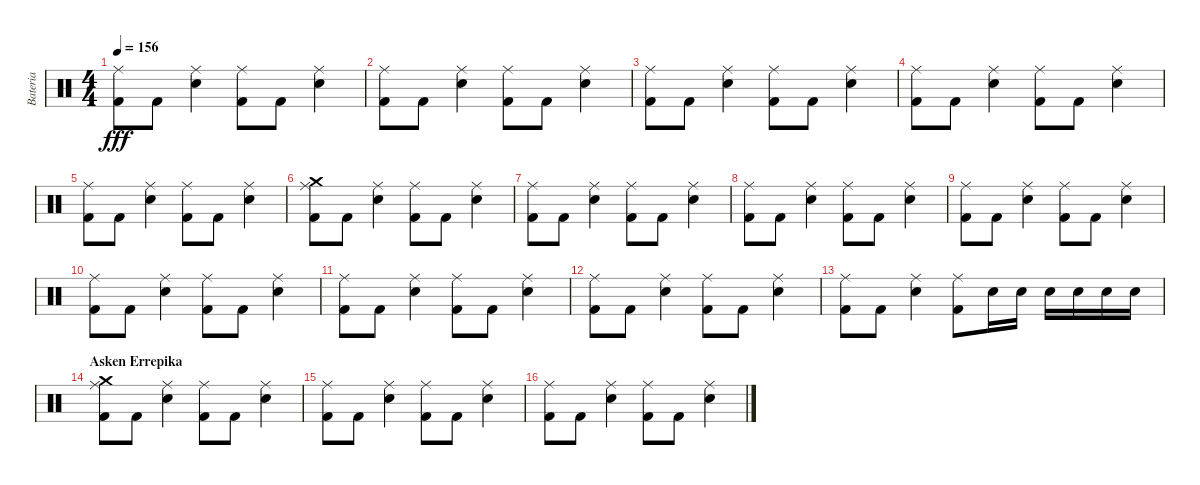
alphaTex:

\track ("Bateria" "Bateria") {instrument percussion}
\staff {score}
\articulation defaults
\ts (4 4)
\tempo 156
\clef neutral
\ks c
("Ride (middle)" "Kick (hit) 2").8{dy fff} "Kick (hit) 2".8 ("Ride (middle)" "Electric Snare (hit)").4 ("Ride (middle)" "Kick (hit) 2").8 "Kick (hit) 2".8 ("Ride (middle)" "Electric Snare (hit)").4 |
("Ride (middle)" "Kick (hit) 2").8 "Kick (hit) 2".8 ("Ride (middle)" "Electric Snare (hit)").4 ("Ride (middle)" "Kick (hit) 2").8 "Kick (hit) 2".8 ("Ride (middle)" "Electric Snare (hit)").4 |
("Ride (middle)" "Kick (hit) 2").8 "Kick (hit) 2".8 ("Ride (middle)" "Electric Snare (hit)").4 ("Ride (middle)" "Kick (hit) 2").8 "Kick (hit) 2".8 ("Ride (middle)" "Electric Snare (hit)").4 |
("Ride (middle)" "Kick (hit) 2").8 "Kick (hit) 2".8 ("Ride (middle)" "Electric Snare (hit)").4 ("Ride (middle)" "Kick (hit) 2").8 "Kick (hit) 2".8 ("Ride (middle)" "Electric Snare (hit)").4 |
("Ride (middle)" "Kick (hit) 2").8 "Kick (hit) 2".8 ("Ride (middle)" "Electric Snare (hit)").4 ("Ride (middle)" "Kick (hit) 2").8 "Kick (hit) 2".8 ("Ride (middle)" "Electric Snare (hit)").4 |
("Ride (middle)" "Kick (hit) 2" "Crash medium (hit)").8 "Kick (hit) 2".8 ("Ride (middle)" "Electric Snare (hit)").4 ("Ride (middle)" "Kick (hit) 2").8 "Kick (hit) 2".8 ("Ride (middle)" "Electric Snare (hit)").4 |
("Ride (middle)" "Kick (hit) 2").8 "Kick (hit) 2".8 ("Ride (middle)" "Electric Snare (hit)").4 ("Ride (middle)" "Kick (hit) 2").8 "Kick (hit) 2".8 ("Ride (middle)" "Electric Snare (hit)").4 |
("Ride (middle)" "Kick (hit) 2").8 "Kick (hit) 2".8 ("Ride (middle)" "Electric Snare (hit)").4 ("Ride (middle)" "Kick (hit) 2").8 "Kick (hit) 2".8 ("Ride (middle)" "Electric Snare (hit)").4 |
("Ride (middle)" "Kick (hit) 2").8 "Kick (hit) 2".8 ("Ride (middle)" "Electric Snare (hit)").4 ("Ride (middle)" "Kick (hit) 2").8 "Kick (hit) 2".8 ("Ride (middle)" "Electric Snare (hit)").4 |
("Ride (middle)" "Kick (hit) 2").8 "Kick (hit) 2".8 ("Ride (middle)" "Electric Snare (hit)").4 ("Ride (middle)" "Kick (hit) 2").8 "Kick (hit) 2".8 ("Ride (middle)" "Electric Snare (hit)").4 |
("Ride (middle)" "Kick (hit) 2").8 "Kick (hit) 2".8 ("Ride (middle)" "Electric Snare (hit)").4 ("Ride (middle)" "Kick (hit) 2").8 "Kick (hit) 2".8 ("Ride (middle)" "Electric Snare (hit)").4 |
("Ride (middle)" "Kick (hit) 2").8 "Kick (hit) 2".8 ("Ride (middle)" "Electric Snare (hit)").4 ("Ride (middle)" "Kick (hit) 2").8 "Kick (hit) 2".8 ("Ride (middle)" "Electric Snare (hit)").4 |
("Ride (middle)" "Kick (hit) 2").8 "Kick (hit) 2".8 ("Ride (middle)" "Electric Snare (hit)").4 ("Ride (middle)" "Kick (hit) 2").8 "Electric Snare (hit)".16 "Electric Snare (hit)".16 "Electric Snare (hit)".16 "Electric Snare (hit)".16 "Electric Snare (hit)".16 "Electric Snare (hit)".16 |
\section ("" "Asken Errepika")
("Ride (middle)" "Kick (hit) 2" "Crash medium (hit)").8 "Kick (hit) 2".8 ("Ride (middle)" "Electric Snare (hit)").4 ("Ride (middle)" "Kick (hit) 2").8 "Kick (hit) 2".8 ("Ride (middle)" "Electric Snare (hit)").4 |
("Ride (middle)" "Kick (hit) 2").8 "Kick (hit) 2".8 ("Ride (middle)" "Electric Snare (hit)").4 ("Ride (middle)" "Kick (hit) 2").8 "Kick (hit) 2".8 ("Ride (middle)" "Electric Snare (hit)").4 |
("Ride (middle)" "Kick (hit) 2").8 "Kick (hit) 2".8 ("Ride (middle)" "Electric Snare (hit)").4 ("Ride (middle)" "Kick (hit) 2").8 "Kick (hit) 2".8 ("Ride (middle)" "Electric Snare (hit)").4
